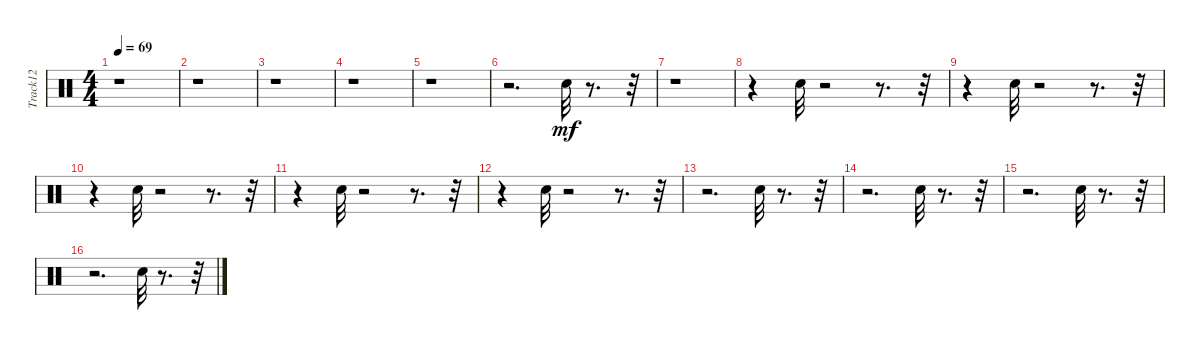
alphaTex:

\track ("Track12" "Track12") {instrument percussion}
\staff {score}
\articulation defaults
\ts (4 4)
\tempo 69
\clef neutral
\ks c
r.1{dy mf} |
r.1 |
r.1 |
r.1 |
r.1 |
r.2{d} "Hand Clap (hit)".32 r.8{d} r.32 |
r.1 |
r.4 "Hand Clap (hit)".32 r.2 r.8{d} r.32 |
r.4 "Hand Clap (hit)".32 r.2 r.8{d} r.32 |
r.4 "Hand Clap (hit)".32 r.2 r.8{d} r.32 |
r.4 "Hand Clap (hit)".32 r.2 r.8{d} r.32 |
r.4 "Hand Clap (hit)".32 r.2 r.8{d} r.32 |
r.2{d} "Hand Clap (hit)".32 r.8{d} r.32 |
r.2{d} "Hand Clap (hit)".32 r.8{d} r.32 |
r.2{d} "Hand Clap (hit)".32 r.8{d} r.32 |
r.2{d} "Hand Clap (hit)".32 r.8{d} r.32
